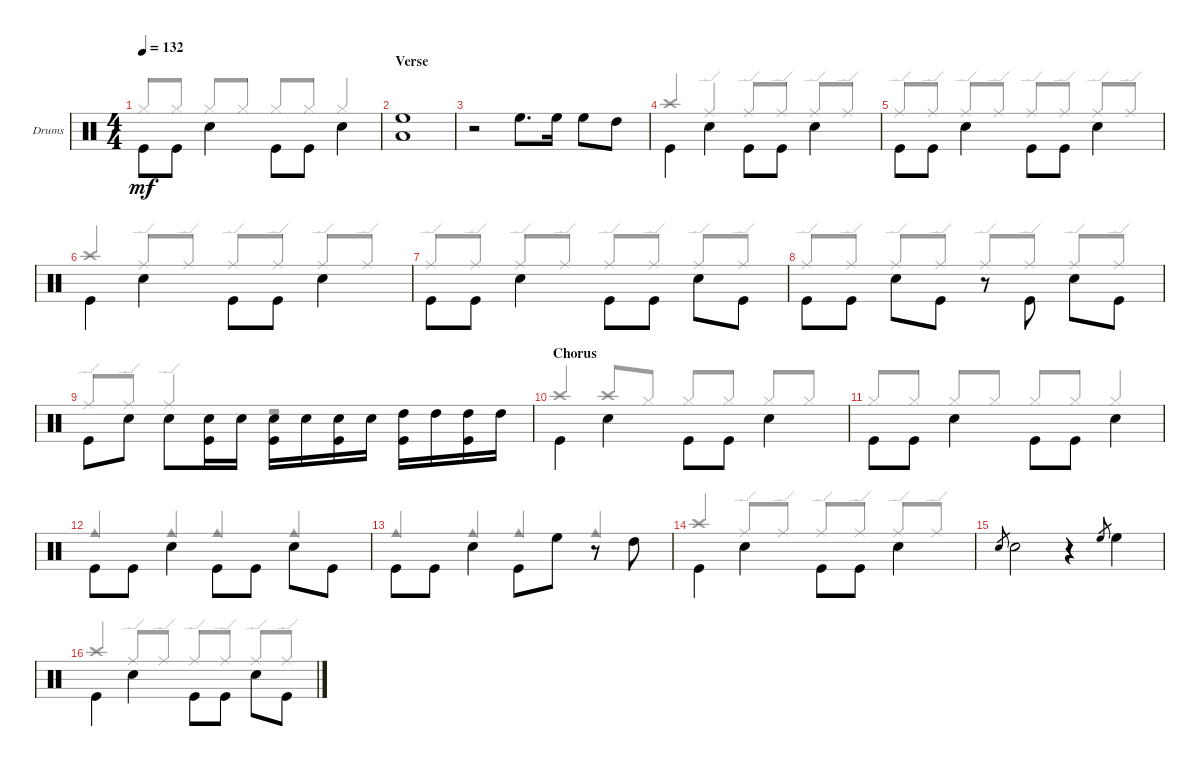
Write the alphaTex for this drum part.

\defaultSystemsLayout 4
\bracketExtendMode groupsimilarinstruments
\firstSystemTrackNameOrientation horizontal
\otherSystemsTrackNameOrientation horizontal
\track ("PETER CRISS" "Drums") {solo instrument percussion}
\staff {score}
\articulation defaults
\voice
\ts (4 4)
\tempo 132
\clef neutral
\ks aminor "Kick (hit)".8{dy mf beam invert} "Kick (hit)".8 "Snare (hit) 2".4{beam invert} "Kick (hit)".8{beam invert} "Kick (hit)".8 "Snare (hit) 2".4{beam invert}
|
\section ("" "Verse")
("High Floor Tom (hit)" "Low Tom (hit)").1 |
r.2 "High Floor Tom (hit)".8{d} "High Floor Tom (hit)".16 "High Floor Tom (hit)".8 "High Tom (hit)".8 |
"Kick (hit)".4{beam invert} "Snare (hit) 2".4{beam invert} "Kick (hit)".8{beam invert} "Kick (hit)".8 "Snare (hit) 2".4{beam invert} |
"Kick (hit)".8{beam invert} "Kick (hit)".8 "Snare (hit) 2".4{beam invert} "Kick (hit)".8{beam invert} "Kick (hit)".8 "Snare (hit) 2".4{beam invert} |
"Kick (hit)".4{beam invert} "Snare (hit) 2".4{beam invert} "Kick (hit)".8{beam invert} "Kick (hit)".8 "Snare (hit) 2".4{beam invert} |
"Kick (hit)".8{beam invert} "Kick (hit)".8 "Snare (hit) 2".4{beam invert} "Kick (hit)".8{beam invert} "Kick (hit)".8 "Snare (hit) 2".8{beam invert} "Kick (hit)".8 |
"Kick (hit)".8{beam invert} "Kick (hit)".8 "Snare (hit) 2".8{beam invert} "Kick (hit)".8 r.8 "Kick (hit)".8{beam invert} "Snare (hit) 2".8{beam invert} "Kick (hit)".8 |
"Kick (hit)".8{beam invert} "Snare (hit) 2".8 "Snare (hit) 2".8{beam invert} ("Snare (hit) 2" "Kick (hit)").16 "Snare (hit) 2".16 ("Snare (hit) 2" "Kick (hit)").16{beam invert} "Snare (hit) 2".16 ("Snare (hit) 2" "Kick (hit)").16 "Snare (hit) 2".16 ("High Tom (hit)" "Kick (hit)").16{beam invert} "High Tom (hit)".16 ("High Tom (hit)" "Kick (hit)").16 "High Tom (hit)".16 |
\section ("" "Chorus")
"Kick (hit)".4{beam invert} "Snare (hit) 2".4{beam invert} "Kick (hit)".8{beam invert} "Kick (hit)".8 "Snare (hit) 2".4{beam invert} |
"Kick (hit)".8{beam invert} "Kick (hit)".8 "Snare (hit) 2".4{beam invert} "Kick (hit)".8{beam invert} "Kick (hit)".8 "Snare (hit) 2".4{beam invert} |
"Kick (hit)".8{beam invert} "Kick (hit)".8 "Snare (hit) 2".4{beam invert} "Kick (hit)".8{beam invert} "Kick (hit)".8 "Snare (hit) 2".8{beam invert} "Kick (hit)".8 |
"Kick (hit)".8{beam invert} "Kick (hit)".8 "Snare (hit) 2".4{beam invert} "Kick (hit)".8{beam invert} "High Floor Tom (hit)".8 r.8 "High Tom (hit)".8{beam invert} |
"Kick (hit)".4{beam invert} "Snare (hit) 2".4{beam invert} "Kick (hit)".8{beam invert} "Kick (hit)".8 "Snare (hit) 2".4{beam invert} |
"Snare (hit) 2".8{gr} "Snare (hit) 2".2 r.4 "High Floor Tom (hit)".8{gr} "High Floor Tom (hit)".4 |
"Kick (hit)".4{beam invert} "Snare (hit) 2".4{beam invert} "Kick (hit)".8{beam invert} "Kick (hit)".8 "Snare (hit) 2".8{beam invert} "Kick (hit)".8
\voice
\clef neutral
\ottava regular
\simile none
\ks aminor "Hi-Hat (closed)".8{dy mf beam invert} "Hi-Hat (closed)".8 "Hi-Hat (closed)".8{beam invert} "Hi-Hat (closed)".8 "Hi-Hat (closed)".8{beam invert} "Hi-Hat (closed)".8 "Hi-Hat (closed)".4{beam invert}
|
|
|
"Crash high (hit)".4{beam invert} "Ride (edge)".4{beam invert} "Ride (edge)".8{beam invert} "Ride (edge)".8 "Ride (edge)".8{beam invert} "Ride (edge)".8 |
"Ride (edge)".8{beam invert} "Ride (edge)".8 "Ride (edge)".8{beam invert} "Ride (edge)".8 "Ride (edge)".8{beam invert} "Ride (edge)".8 "Ride (edge)".8{beam invert} "Ride (edge)".8 |
"Crash high (hit)".4{beam invert} "Ride (edge)".8 "Ride (edge)".8{beam invert} "Ride (edge)".8{beam invert} "Ride (edge)".8 "Ride (edge)".8{beam invert} "Ride (edge)".8 |
"Ride (edge)".8{beam invert} "Ride (edge)".8 "Ride (edge)".8{beam invert} "Ride (edge)".8 "Ride (edge)".8{beam invert} "Ride (edge)".8 "Ride (edge)".8{beam invert} "Ride (edge)".8 |
"Ride (edge)".8{beam invert} "Ride (edge)".8 "Ride (edge)".8{beam invert} "Ride (edge)".8 "Ride (edge)".8{beam invert} "Ride (edge)".8 "Ride (edge)".8{beam invert} "Ride (edge)".8 |
"Ride (edge)".8{beam invert} "Ride (edge)".8 "Ride (edge)".4{beam invert} r.2 |
"Crash high (hit)".4{beam invert} "Crash high (hit)".8{beam invert} "Hi-Hat (closed)".8 "Hi-Hat (closed)".8{beam invert} "Hi-Hat (closed)".8 "Hi-Hat (closed)".8{beam invert} "Hi-Hat (closed)".8 |
"Hi-Hat (closed)".8{beam invert} "Hi-Hat (closed)".8 "Hi-Hat (closed)".8{beam invert} "Hi-Hat (closed)".8 "Hi-Hat (closed)".8{beam invert} "Hi-Hat (closed)".8 "Hi-Hat (closed)".4{beam invert} |
"Cowbell medium (hit)".4{beam invert} "Cowbell medium (hit)".4{beam invert} "Cowbell medium (hit)".4{beam invert} "Cowbell medium (hit)".4{beam invert} |
"Cowbell medium (hit)".4{beam invert} "Cowbell medium (hit)".4{beam invert} "Cowbell medium (hit)".4{beam invert} "Cowbell medium (hit)".4{beam invert} |
"Crash high (hit)".4{beam invert} "Ride (edge)".8{beam invert} "Ride (edge)".8 "Ride (edge)".8{beam invert} "Ride (edge)".8 "Ride (edge)".8{beam invert} "Ride (edge)".8 |
|
"Crash high (hit)".4{beam invert} "Ride (edge)".8{beam invert} "Ride (edge)".8 "Ride (edge)".8{beam invert} "Ride (edge)".8 "Ride (edge)".8{beam invert} "Ride (edge)".8
